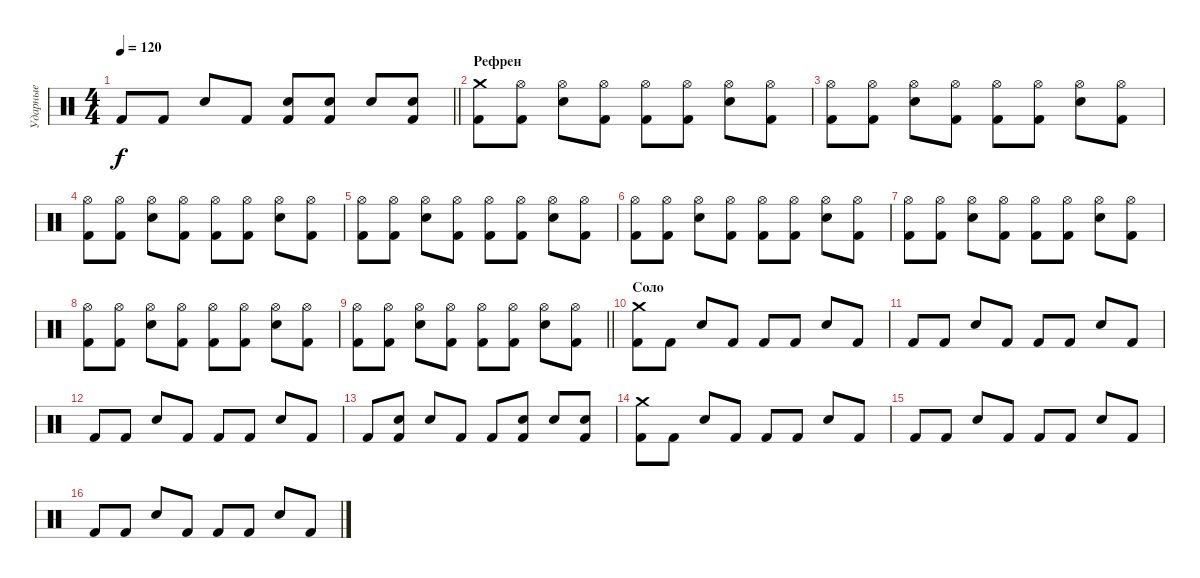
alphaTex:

\track ("Ударные" "Ударные") {instrument percussion}
\staff {score}
\articulation defaults
\ts (4 4)
\tempo 120
\clef neutral
\barLineRight lightlight
\ks c "Kick (hit) 2".8{dy f} "Kick (hit) 2".8 "Snare (hit) 2".8 "Kick (hit) 2".8
("Snare (hit) 2" "Kick (hit) 2").8 ("Snare (hit) 2" "Kick (hit) 2").8 "Snare (hit) 2".8 ("Snare (hit) 2" "Kick (hit) 2").8 |
\section ("" "Рефрен")
("Kick (hit) 2" "Crash medium (hit)").8 ("Kick (hit) 2" "Hi-Hat (open)").8 ("Snare (hit) 2" "Hi-Hat (open)").8 ("Kick (hit) 2" "Hi-Hat (open)").8 ("Kick (hit) 2" "Hi-Hat (open)").8 ("Kick (hit) 2" "Hi-Hat (open)").8 ("Snare (hit) 2" "Hi-Hat (open)").8 ("Kick (hit) 2" "Hi-Hat (open)").8 |
("Kick (hit) 2" "Hi-Hat (open)").8 ("Kick (hit) 2" "Hi-Hat (open)").8 ("Snare (hit) 2" "Hi-Hat (open)").8 ("Kick (hit) 2" "Hi-Hat (open)").8 ("Kick (hit) 2" "Hi-Hat (open)").8 ("Kick (hit) 2" "Hi-Hat (open)").8 ("Snare (hit) 2" "Hi-Hat (open)").8 ("Kick (hit) 2" "Hi-Hat (open)").8 |
("Kick (hit) 2" "Hi-Hat (open)").8 ("Kick (hit) 2" "Hi-Hat (open)").8 ("Snare (hit) 2" "Hi-Hat (open)").8 ("Kick (hit) 2" "Hi-Hat (open)").8 ("Kick (hit) 2" "Hi-Hat (open)").8 ("Kick (hit) 2" "Hi-Hat (open)").8 ("Snare (hit) 2" "Hi-Hat (open)").8 ("Kick (hit) 2" "Hi-Hat (open)").8 |
("Kick (hit) 2" "Hi-Hat (open)").8 ("Kick (hit) 2" "Hi-Hat (open)").8 ("Snare (hit) 2" "Hi-Hat (open)").8 ("Kick (hit) 2" "Hi-Hat (open)").8 ("Kick (hit) 2" "Hi-Hat (open)").8 ("Kick (hit) 2" "Hi-Hat (open)").8 ("Snare (hit) 2" "Hi-Hat (open)").8 ("Kick (hit) 2" "Hi-Hat (open)").8 |
("Kick (hit) 2" "Hi-Hat (open)").8 ("Kick (hit) 2" "Hi-Hat (open)").8 ("Snare (hit) 2" "Hi-Hat (open)").8 ("Kick (hit) 2" "Hi-Hat (open)").8 ("Kick (hit) 2" "Hi-Hat (open)").8 ("Kick (hit) 2" "Hi-Hat (open)").8 ("Snare (hit) 2" "Hi-Hat (open)").8 ("Kick (hit) 2" "Hi-Hat (open)").8 |
("Kick (hit) 2" "Hi-Hat (open)").8 ("Kick (hit) 2" "Hi-Hat (open)").8 ("Snare (hit) 2" "Hi-Hat (open)").8 ("Kick (hit) 2" "Hi-Hat (open)").8 ("Kick (hit) 2" "Hi-Hat (open)").8 ("Kick (hit) 2" "Hi-Hat (open)").8 ("Snare (hit) 2" "Hi-Hat (open)").8 ("Kick (hit) 2" "Hi-Hat (open)").8 |
("Kick (hit) 2" "Hi-Hat (open)").8 ("Kick (hit) 2" "Hi-Hat (open)").8 ("Snare (hit) 2" "Hi-Hat (open)").8 ("Kick (hit) 2" "Hi-Hat (open)").8 ("Kick (hit) 2" "Hi-Hat (open)").8 ("Kick (hit) 2" "Hi-Hat (open)").8 ("Snare (hit) 2" "Hi-Hat (open)").8 ("Kick (hit) 2" "Hi-Hat (open)").8 |
\barLineRight lightlight
("Kick (hit) 2" "Hi-Hat (open)").8 ("Kick (hit) 2" "Hi-Hat (open)").8 ("Snare (hit) 2" "Hi-Hat (open)").8 ("Kick (hit) 2" "Hi-Hat (open)").8 ("Kick (hit) 2" "Hi-Hat (open)").8 ("Kick (hit) 2" "Hi-Hat (open)").8 ("Snare (hit) 2" "Hi-Hat (open)").8 ("Kick (hit) 2" "Hi-Hat (open)").8 |
\section ("" "Соло")
("Kick (hit) 2" "Crash medium (hit)").8 "Kick (hit) 2".8 "Snare (hit) 2".8 "Kick (hit) 2".8 "Kick (hit) 2".8 "Kick (hit) 2".8 "Snare (hit) 2".8 "Kick (hit) 2".8 |
"Kick (hit) 2".8 "Kick (hit) 2".8 "Snare (hit) 2".8 "Kick (hit) 2".8 "Kick (hit) 2".8 "Kick (hit) 2".8 "Snare (hit) 2".8 "Kick (hit) 2".8 |
"Kick (hit) 2".8 "Kick (hit) 2".8 "Snare (hit) 2".8 "Kick (hit) 2".8 "Kick (hit) 2".8 "Kick (hit) 2".8 "Snare (hit) 2".8 "Kick (hit) 2".8 |
"Kick (hit) 2".8 ("Kick (hit) 2" "Snare (hit) 2").8 "Snare (hit) 2".8 "Kick (hit) 2".8 "Kick (hit) 2".8 ("Kick (hit) 2" "Snare (hit) 2").8 "Snare (hit) 2".8 ("Kick (hit) 2" "Snare (hit) 2").8 |
("Kick (hit) 2" "Crash medium (hit)").8 "Kick (hit) 2".8 "Snare (hit) 2".8 "Kick (hit) 2".8 "Kick (hit) 2".8 "Kick (hit) 2".8 "Snare (hit) 2".8 "Kick (hit) 2".8 |
"Kick (hit) 2".8 "Kick (hit) 2".8 "Snare (hit) 2".8 "Kick (hit) 2".8 "Kick (hit) 2".8 "Kick (hit) 2".8 "Snare (hit) 2".8 "Kick (hit) 2".8 |
"Kick (hit) 2".8 "Kick (hit) 2".8 "Snare (hit) 2".8 "Kick (hit) 2".8 "Kick (hit) 2".8 "Kick (hit) 2".8 "Snare (hit) 2".8 "Kick (hit) 2".8
